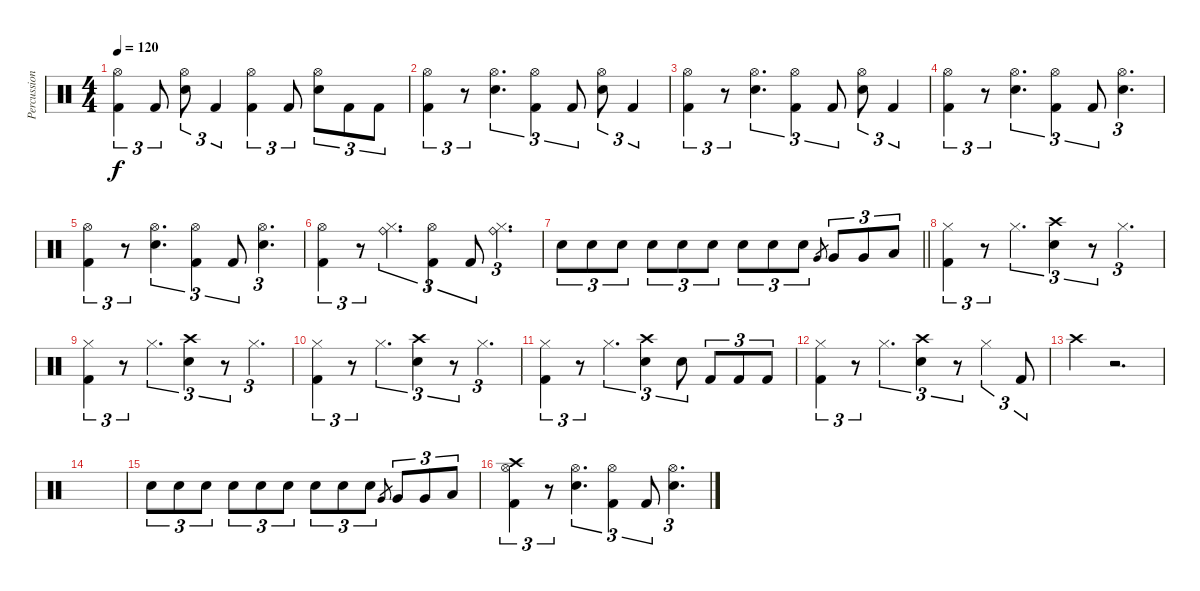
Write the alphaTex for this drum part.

\track ("Percussion" "Percussion") {instrument percussion}
\staff {score}
\articulation defaults
\ts (4 4)
\tempo 120
\clef neutral
\ks c
("Hi-Hat (open)" "Kick (hit) 2").4{tu (3 2) dy f} "Kick (hit) 2".8{tu (3 2)} ("Hi-Hat (open)" "Electric Snare (hit)").8{tu (3 2)} "Kick (hit) 2".4{tu (3 2)} ("Hi-Hat (open)" "Kick (hit) 2").4{tu (3 2)} "Kick (hit) 2".8{tu (3 2)} ("Hi-Hat (open)" "Electric Snare (hit)").8{tu (3 2)} "Kick (hit) 2".8{tu (3 2)} "Kick (hit) 2".8{tu (3 2)} |
("Hi-Hat (open)" "Kick (hit) 2").4{tu (3 2)} r.8{tu (3 2)} ("Hi-Hat (open)" "Electric Snare (hit)").4{d tu (3 2)} ("Hi-Hat (open)" "Kick (hit) 2").4{tu (3 2)} "Kick (hit) 2".8{tu (3 2)} ("Hi-Hat (open)" "Electric Snare (hit)").8{tu (3 2)} "Kick (hit) 2".4{tu (3 2)} |
("Hi-Hat (open)" "Kick (hit) 2").4{tu (3 2)} r.8{tu (3 2)} ("Hi-Hat (open)" "Electric Snare (hit)").4{d tu (3 2)} ("Hi-Hat (open)" "Kick (hit) 2").4{tu (3 2)} "Kick (hit) 2".8{tu (3 2)} ("Hi-Hat (open)" "Electric Snare (hit)").8{tu (3 2)} "Kick (hit) 2".4{tu (3 2)} |
("Hi-Hat (open)" "Kick (hit) 2").4{tu (3 2)} r.8{tu (3 2)} ("Hi-Hat (open)" "Electric Snare (hit)").4{d tu (3 2)} ("Hi-Hat (open)" "Kick (hit) 2").4{tu (3 2)} "Kick (hit) 2".8{tu (3 2)} ("Hi-Hat (open)" "Electric Snare (hit)").4{d tu (3 2)} |
("Hi-Hat (open)" "Kick (hit) 2").4{tu (3 2)} r.8{tu (3 2)} ("Hi-Hat (open)" "Electric Snare (hit)").4{d tu (3 2)} ("Hi-Hat (open)" "Kick (hit) 2").4{tu (3 2)} "Kick (hit) 2".8{tu (3 2)} ("Hi-Hat (open)" "Electric Snare (hit)").4{d tu (3 2)} |
("Hi-Hat (open)" "Kick (hit) 2").4{tu (3 2)} r.8{tu (3 2)} ("Ride (bell)" "Hi-Hat (closed)").4{d tu (3 2)} ("Hi-Hat (open)" "Kick (hit) 2").4{tu (3 2)} "Kick (hit) 2".8{tu (3 2)} ("Ride (bell)" "Hi-Hat (closed)").4{d tu (3 2)} |
\barLineRight lightlight "Electric Snare (hit)".8{tu (3 2)} "Electric Snare (hit)".8{tu (3 2)} "Electric Snare (hit)".8{tu (3 2)} "Electric Snare (hit)".8{tu (3 2)} "Electric Snare (hit)".8{tu (3 2)} "Electric Snare (hit)".8{tu (3 2)} "Electric Snare (hit)".8{tu (3 2)} "Electric Snare (hit)".8{tu (3 2)} "Electric Snare (hit)".8{tu (3 2)} "Very Low Tom (hit)".8{gr} "Very Low Tom (hit)".8{tu (3 2)} "Very Low Tom (hit)".8{tu (3 2)} "Low Tom (hit)".8{tu (3 2)}
|
\section ("" "")
("Hi-Hat (closed)" "Kick (hit) 2").4{tu (3 2)} r.8{tu (3 2)} "Hi-Hat (closed)".4{d tu (3 2)} ("Crash high (hit)" "Electric Snare (hit)").4{tu (3 2)} r.8{tu (3 2)} "Hi-Hat (closed)".4{d tu (3 2)} |
("Hi-Hat (closed)" "Kick (hit) 2").4{tu (3 2)} r.8{tu (3 2)} "Hi-Hat (closed)".4{d tu (3 2)} ("Crash high (hit)" "Electric Snare (hit)").4{tu (3 2)} r.8{tu (3 2)} "Hi-Hat (closed)".4{d tu (3 2)} |
("Hi-Hat (closed)" "Kick (hit) 2").4{tu (3 2)} r.8{tu (3 2)} "Hi-Hat (closed)".4{d tu (3 2)} ("Crash high (hit)" "Electric Snare (hit)").4{tu (3 2)} r.8{tu (3 2)} "Hi-Hat (closed)".4{d tu (3 2)} |
("Hi-Hat (closed)" "Kick (hit) 2").4{tu (3 2)} r.8{tu (3 2)} "Hi-Hat (closed)".4{d tu (3 2)} ("Crash high (hit)" "Electric Snare (hit)").4{tu (3 2)} "Electric Snare (hit)".8{tu (3 2)} "Kick (hit) 2".8{tu (3 2)} "Kick (hit) 2".8{tu (3 2)} "Kick (hit) 2".8{tu (3 2)} |
("Hi-Hat (closed)" "Kick (hit) 2").4{tu (3 2)} r.8{tu (3 2)} "Hi-Hat (closed)".4{d tu (3 2)} ("Crash high (hit)" "Electric Snare (hit)").4{tu (3 2)} r.8{tu (3 2)} "Hi-Hat (closed)".4{tu (3 2)} "Kick (hit) 2".8{tu (3 2)} |
"Crash high (hit)".4 r.2{d} |
|
"Electric Snare (hit)".8{tu (3 2)} "Electric Snare (hit)".8{tu (3 2)} "Electric Snare (hit)".8{tu (3 2)} "Electric Snare (hit)".8{tu (3 2)} "Electric Snare (hit)".8{tu (3 2)} "Electric Snare (hit)".8{tu (3 2)} "Electric Snare (hit)".8{tu (3 2)} "Electric Snare (hit)".8{tu (3 2)} "Electric Snare (hit)".8{tu (3 2)} "Very Low Tom (hit)".8{gr} "Very Low Tom (hit)".8{tu (3 2)} "Very Low Tom (hit)".8{tu (3 2)} "Low Tom (hit)".8{tu (3 2)} |
("Hi-Hat (open)" "Crash high (hit)" "Kick (hit) 2").4{tu (3 2)} r.8{tu (3 2)} ("Hi-Hat (open)" "Electric Snare (hit)").4{d tu (3 2)} ("Hi-Hat (open)" "Kick (hit) 2").4{tu (3 2)} "Kick (hit) 2".8{tu (3 2)} ("Hi-Hat (open)" "Electric Snare (hit)").4{d tu (3 2)}
